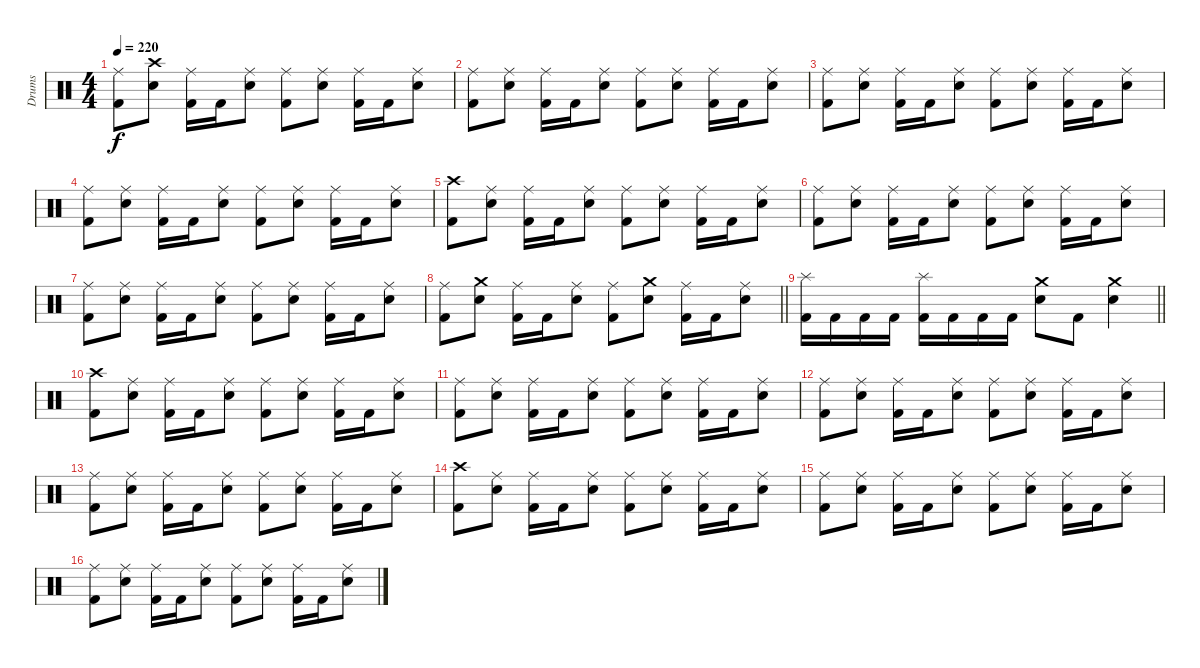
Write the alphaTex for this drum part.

\track ("Drums" "Drums") {instrument percussion}
\staff {score}
\articulation defaults
\ts (4 4)
\tempo 220
\clef neutral
\ks c
("Ride (middle)" "Kick (hit) 2").8{dy f} ("Crash high (hit)" "Snare (hit) 2").8 ("Ride (middle)" "Kick (hit) 2").16 "Kick (hit) 2".16 ("Ride (middle)" "Snare (hit) 2").8 ("Ride (middle)" "Kick (hit) 2").8 ("Ride (middle)" "Snare (hit) 2").8 ("Ride (middle)" "Kick (hit) 2").16 "Kick (hit) 2".16 ("Ride (middle)" "Snare (hit) 2").8 |
("Ride (middle)" "Kick (hit) 2").8 ("Ride (middle)" "Snare (hit) 2").8 ("Ride (middle)" "Kick (hit) 2").16 "Kick (hit) 2".16 ("Ride (middle)" "Snare (hit) 2").8 ("Ride (middle)" "Kick (hit) 2").8 ("Ride (middle)" "Snare (hit) 2").8 ("Ride (middle)" "Kick (hit) 2").16 "Kick (hit) 2".16 ("Ride (middle)" "Snare (hit) 2").8 |
("Ride (middle)" "Kick (hit) 2").8 ("Ride (middle)" "Snare (hit) 2").8 ("Ride (middle)" "Kick (hit) 2").16 "Kick (hit) 2".16 ("Ride (middle)" "Snare (hit) 2").8 ("Ride (middle)" "Kick (hit) 2").8 ("Ride (middle)" "Snare (hit) 2").8 ("Ride (middle)" "Kick (hit) 2").16 "Kick (hit) 2".16 ("Ride (middle)" "Snare (hit) 2").8 |
("Ride (middle)" "Kick (hit) 2").8 ("Ride (middle)" "Snare (hit) 2").8 ("Ride (middle)" "Kick (hit) 2").16 "Kick (hit) 2".16 ("Ride (middle)" "Snare (hit) 2").8 ("Ride (middle)" "Kick (hit) 2").8 ("Ride (middle)" "Snare (hit) 2").8 ("Ride (middle)" "Kick (hit) 2").16 "Kick (hit) 2".16 ("Ride (middle)" "Snare (hit) 2").8 |
("Crash high (hit)" "Kick (hit) 2").8 ("Ride (middle)" "Snare (hit) 2").8 ("Ride (middle)" "Kick (hit) 2").16 "Kick (hit) 2".16 ("Ride (middle)" "Snare (hit) 2").8 ("Ride (middle)" "Kick (hit) 2").8 ("Ride (middle)" "Snare (hit) 2").8 ("Ride (middle)" "Kick (hit) 2").16 "Kick (hit) 2".16 ("Ride (middle)" "Snare (hit) 2").8 |
("Ride (middle)" "Kick (hit) 2").8 ("Ride (middle)" "Snare (hit) 2").8 ("Ride (middle)" "Kick (hit) 2").16 "Kick (hit) 2".16 ("Ride (middle)" "Snare (hit) 2").8 ("Ride (middle)" "Kick (hit) 2").8 ("Ride (middle)" "Snare (hit) 2").8 ("Ride (middle)" "Kick (hit) 2").16 "Kick (hit) 2".16 ("Ride (middle)" "Snare (hit) 2").8 |
("Ride (middle)" "Kick (hit) 2").8 ("Ride (middle)" "Snare (hit) 2").8 ("Ride (middle)" "Kick (hit) 2").16 "Kick (hit) 2".16 ("Ride (middle)" "Snare (hit) 2").8 ("Ride (middle)" "Kick (hit) 2").8 ("Ride (middle)" "Snare (hit) 2").8 ("Ride (middle)" "Kick (hit) 2").16 "Kick (hit) 2".16 ("Ride (middle)" "Snare (hit) 2").8 |
\barLineRight lightlight
("Ride (middle)" "Kick (hit) 2").8 ("Crash medium (hit)" "Snare (hit) 2").8 ("Ride (middle)" "Kick (hit) 2").16 "Kick (hit) 2".16 ("Ride (middle)" "Snare (hit) 2").8 ("Ride (middle)" "Kick (hit) 2").8 ("Crash medium (hit)" "Snare (hit) 2").8 ("Ride (middle)" "Kick (hit) 2").16 "Kick (hit) 2".16 ("Ride (middle)" "Snare (hit) 2").8 |
\section ("" "")
\barLineRight lightlight
("Splash (hit)" "Kick (hit) 2").16 "Kick (hit) 2".16 "Kick (hit) 2".16 "Kick (hit) 2".16 ("Splash (hit)" "Kick (hit) 2").16 "Kick (hit) 2".16 "Kick (hit) 2".16 "Kick (hit) 2".16 ("Crash medium (hit)" "Snare (hit) 2").8 "Kick (hit) 2".8 ("Crash medium (hit)" "Snare (hit) 2").4 |
\section ("" "")
("Crash high (hit)" "Kick (hit) 2").8 ("Ride (middle)" "Snare (hit) 2").8 ("Ride (middle)" "Kick (hit) 2").16 "Kick (hit) 2".16 ("Ride (middle)" "Snare (hit) 2").8 ("Ride (middle)" "Kick (hit) 2").8 ("Ride (middle)" "Snare (hit) 2").8 ("Ride (middle)" "Kick (hit) 2").16 "Kick (hit) 2".16 ("Ride (middle)" "Snare (hit) 2").8 |
("Ride (middle)" "Kick (hit) 2").8 ("Ride (middle)" "Snare (hit) 2").8 ("Ride (middle)" "Kick (hit) 2").16 "Kick (hit) 2".16 ("Ride (middle)" "Snare (hit) 2").8 ("Ride (middle)" "Kick (hit) 2").8 ("Ride (middle)" "Snare (hit) 2").8 ("Ride (middle)" "Kick (hit) 2").16 "Kick (hit) 2".16 ("Ride (middle)" "Snare (hit) 2").8 |
("Ride (middle)" "Kick (hit) 2").8 ("Ride (middle)" "Snare (hit) 2").8 ("Ride (middle)" "Kick (hit) 2").16 "Kick (hit) 2".16 ("Ride (middle)" "Snare (hit) 2").8 ("Ride (middle)" "Kick (hit) 2").8 ("Ride (middle)" "Snare (hit) 2").8 ("Ride (middle)" "Kick (hit) 2").16 "Kick (hit) 2".16 ("Ride (middle)" "Snare (hit) 2").8 |
("Ride (middle)" "Kick (hit) 2").8 ("Ride (middle)" "Snare (hit) 2").8 ("Ride (middle)" "Kick (hit) 2").16 "Kick (hit) 2".16 ("Ride (middle)" "Snare (hit) 2").8 ("Ride (middle)" "Kick (hit) 2").8 ("Ride (middle)" "Snare (hit) 2").8 ("Ride (middle)" "Kick (hit) 2").16 "Kick (hit) 2".16 ("Ride (middle)" "Snare (hit) 2").8 |
("Crash high (hit)" "Kick (hit) 2").8 ("Ride (middle)" "Snare (hit) 2").8 ("Ride (middle)" "Kick (hit) 2").16 "Kick (hit) 2".16 ("Ride (middle)" "Snare (hit) 2").8 ("Ride (middle)" "Kick (hit) 2").8 ("Ride (middle)" "Snare (hit) 2").8 ("Ride (middle)" "Kick (hit) 2").16 "Kick (hit) 2".16 ("Ride (middle)" "Snare (hit) 2").8 |
("Ride (middle)" "Kick (hit) 2").8 ("Ride (middle)" "Snare (hit) 2").8 ("Ride (middle)" "Kick (hit) 2").16 "Kick (hit) 2".16 ("Ride (middle)" "Snare (hit) 2").8 ("Ride (middle)" "Kick (hit) 2").8 ("Ride (middle)" "Snare (hit) 2").8 ("Ride (middle)" "Kick (hit) 2").16 "Kick (hit) 2".16 ("Ride (middle)" "Snare (hit) 2").8 |
("Ride (middle)" "Kick (hit) 2").8 ("Ride (middle)" "Snare (hit) 2").8 ("Ride (middle)" "Kick (hit) 2").16 "Kick (hit) 2".16 ("Ride (middle)" "Snare (hit) 2").8 ("Ride (middle)" "Kick (hit) 2").8 ("Ride (middle)" "Snare (hit) 2").8 ("Ride (middle)" "Kick (hit) 2").16 "Kick (hit) 2".16 ("Ride (middle)" "Snare (hit) 2").8
